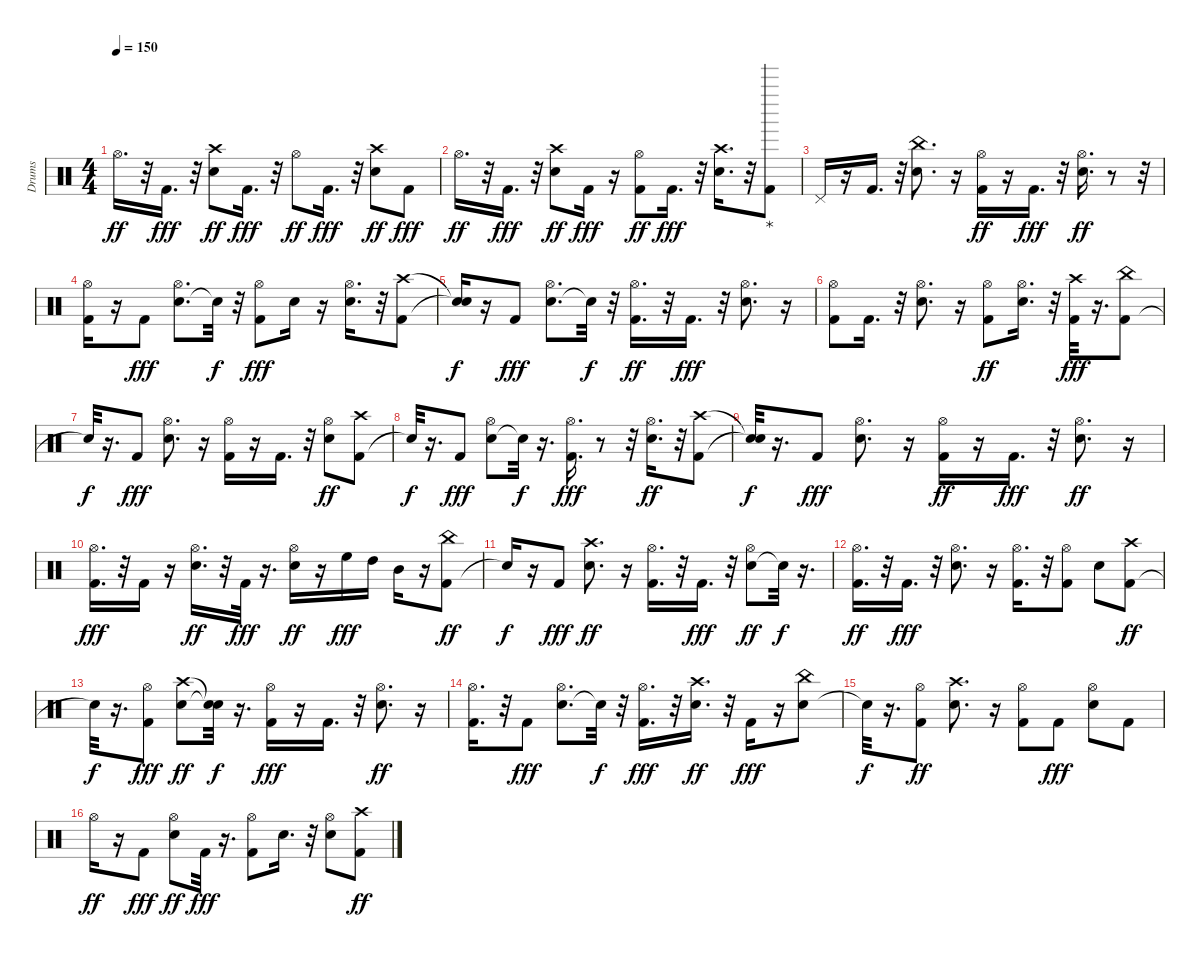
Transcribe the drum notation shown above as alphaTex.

\track ("Drums" "Drums") {instrument percussion}
\staff {score}
\articulation defaults
\ts (4 4)
\tempo 150
\clef neutral
\ks c "Hi-Hat (open)".16{d dy ff}
r.32 "Kick (hit) 2".16{d dy fff} r.32 ("Snare (hit) 2" "Crash high (hit)").8{dy ff} "Kick (hit) 2".16{d dy fff} r.32 "Hi-Hat (open)".8{dy ff} "Kick (hit) 2".16{d dy fff} r.32 ("Snare (hit) 2" "Crash high (hit)").8{dy ff} "Kick (hit) 2".8{dy fff} |
"Hi-Hat (open)".16{d dy ff} r.32 "Kick (hit) 2".16{d dy fff} r.32 ("Snare (hit) 2" "Crash high (hit)").8{dy ff} "Kick (hit) 2".16{dy fff} r.16 ("Kick (hit) 2" "Hi-Hat (open)").8{dy ff} "Kick (hit) 2".16{d dy fff} r.32 ("Snare (hit) 2" "Crash high (hit)").16{d} r.32 ("Kick (hit) 2" "Golpe (thumb)").8 |
"Pedal Hi-Hat (hit)".16 r.16 "Kick (hit) 2".16{d} r.32 ("Snare (hit) 2" "China (hit)").8{d} r.16 ("Kick (hit) 2" "Hi-Hat (open)").16{dy ff} r.16 "Kick (hit) 2".16{d dy fff} r.32 ("Snare (hit) 2" "Hi-Hat (open)").16{d dy ff} r.8 r.32 |
("Kick (hit) 2" "Hi-Hat (open)").16 r.16 "Kick (hit) 2".8{dy fff} ("Snare (hit) 2" "Hi-Hat (open)").8{d} "Snare (hit)"{t}.32{dy f} r.32 ("Kick (hit) 2" "Hi-Hat (open)").8{dy fff} "Snare (hit) 2".16 r.16 ("Snare (hit) 2" "Hi-Hat (open)").16{d} r.32 ("Kick (hit) 2" "Crash high (hit)").8 |
("Snare (hit)"{t} "Snare (hit)"{t}).16{dy f} r.16 "Kick (hit) 2".8{dy fff} ("Snare (hit) 2" "Hi-Hat (open)").8{d} "Snare (hit)"{t}.32{dy f} r.32 ("Kick (hit) 2" "Hi-Hat (open)").16{d dy ff} r.32 "Kick (hit) 2".16{d dy fff} r.32 ("Snare (hit) 2" "Hi-Hat (open)").8{d} r.16 |
("Kick (hit) 2" "Hi-Hat (open)").8 "Kick (hit) 2".16{d} r.32 ("Snare (hit) 2" "Hi-Hat (open)").8{d} r.16 ("Kick (hit) 2" "Hi-Hat (open)").8{dy ff} ("Snare (hit) 2" "Hi-Hat (open)").16{d} r.32 ("Kick (hit) 2" "Crash high (hit)").32{dy fff} r.16{d} ("Kick (hit) 2" "China (hit)").8 |
"Snare (hit)"{t}.32{dy f} r.16{d} "Kick (hit) 2".8{dy fff} ("Snare (hit) 2" "Hi-Hat (open)").8{d} r.16 ("Kick (hit) 2" "Hi-Hat (open)").16 r.16 "Kick (hit) 2".16{d} r.32 ("Snare (hit) 2" "Hi-Hat (open)").8{dy ff} ("Kick (hit) 2" "Crash high (hit)").8 |
"Snare (hit)"{t}.32{dy f} r.16{d} "Kick (hit) 2".8{dy fff} ("Snare (hit) 2" "Hi-Hat (open)").8 "Snare (hit)"{t}.32{dy f} r.16{d} ("Kick (hit) 2" "Hi-Hat (open)").16{d dy fff} r.8 r.32 ("Snare (hit) 2" "Hi-Hat (open)").16{d dy ff} r.32 ("Kick (hit) 2" "Crash high (hit)").8 |
("Snare (hit)"{t} "Snare (hit)"{t}).32{dy f} r.16{d} "Kick (hit) 2".8{dy fff} ("Snare (hit) 2" "Hi-Hat (open)").8{d} r.16 ("Kick (hit) 2" "Hi-Hat (open)").16{dy ff} r.16 "Kick (hit) 2".16{d dy fff} r.32 ("Snare (hit) 2" "Hi-Hat (open)").8{d dy ff} r.16 |
("Kick (hit) 2" "Hi-Hat (open)").16{d dy fff} r.32 "Kick (hit) 2".16 r.16 ("Snare (hit) 2" "Hi-Hat (open)").16{d dy ff} r.32 "Kick (hit) 2".32{dy fff} r.16{d} ("Snare (hit) 2" "Hi-Hat (open)").16{dy ff} r.16 "High Floor Tom (hit)".16{dy fff} "High Tom (hit)".16 "Mid Tom (hit)".16 r.16 ("Kick (hit) 2" "China (hit)").8{dy ff} |
"Snare (hit)"{t}.16{dy f} r.16 "Kick (hit) 2".8{dy fff} ("Snare (hit) 2" "Crash high (hit)").8{d dy ff} r.16 ("Kick (hit) 2" "Hi-Hat (open)").16{d} r.32 "Kick (hit) 2".16{d dy fff} r.32 ("Snare (hit) 2" "Hi-Hat (open)").8{dy ff} "Snare (hit)"{t}.32{dy f} r.16{d} |
("Kick (hit) 2" "Hi-Hat (open)").16{d dy ff} r.32 "Kick (hit) 2".16{d dy fff} r.32 ("Snare (hit) 2" "Hi-Hat (open)").8{d} r.16 ("Kick (hit) 2" "Hi-Hat (open)").16{d} r.32 ("Kick (hit) 2" "Hi-Hat (open)").8 "Snare (hit) 2".8 ("Kick (hit) 2" "Crash high (hit)").8{dy ff} |
"Snare (hit)"{t}.32{dy f} r.16{d} ("Kick (hit) 2" "Hi-Hat (open)").8{dy fff} ("Snare (hit) 2" "Crash high (hit)").8{dy ff} ("Snare (hit)"{t} "Snare (hit)"{t}).32{dy f} r.16{d} ("Kick (hit) 2" "Hi-Hat (open)").16{dy fff} r.16 "Kick (hit) 2".16{d} r.32 ("Snare (hit) 2" "Hi-Hat (open)").8{d dy ff} r.16 |
("Kick (hit) 2" "Hi-Hat (open)").16{d} r.32 "Kick (hit) 2".8{dy fff} ("Snare (hit) 2" "Hi-Hat (open)").8{d} "Snare (hit)"{t}.32{dy f} r.32 ("Kick (hit) 2" "Hi-Hat (open)").16{d dy fff} r.32 ("Snare (hit) 2" "Crash high (hit)").16{d dy ff} r.32 "Kick (hit) 2".16{dy fff} r.16 ("Snare (hit) 2" "China (hit)").8 |
"Snare (hit)"{t}.32{dy f} r.16{d} ("Kick (hit) 2" "Hi-Hat (open)").8{dy ff} ("Snare (hit) 2" "Crash high (hit)").8{d} r.16 ("Kick (hit) 2" "Hi-Hat (open)").8 "Kick (hit) 2".8{dy fff} ("Snare (hit) 2" "Hi-Hat (open)").8 "Kick (hit) 2".8 |
"Hi-Hat (open)".16{dy ff} r.16 "Kick (hit) 2".8{dy fff} ("Snare (hit) 2" "Hi-Hat (open)").8{dy ff} "Kick (hit) 2".32{dy fff} r.16{d} ("Kick (hit) 2" "Hi-Hat (open)").8 "Snare (hit) 2".16{d} r.32 ("Snare (hit) 2" "Hi-Hat (open)").8 ("Kick (hit) 2" "Crash high (hit)").8{dy ff}
